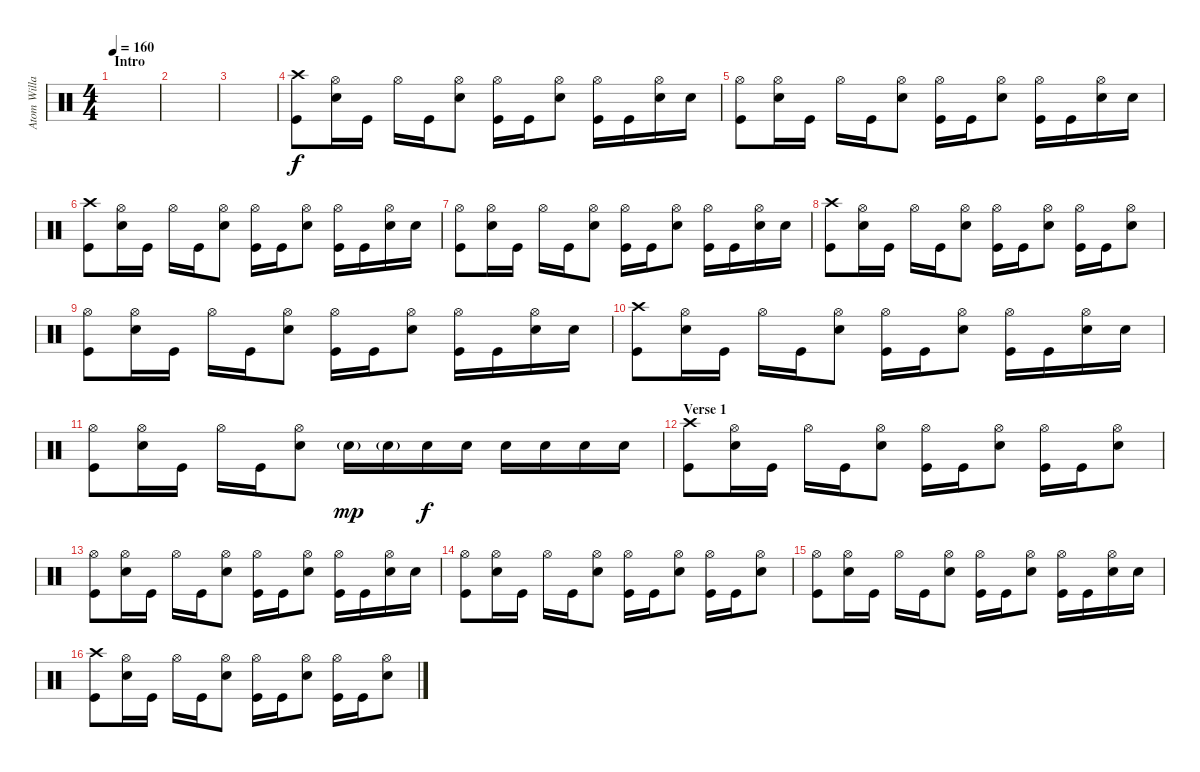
\track ("Atom Willard - Drums" "Atom Willa") {instrument percussion}
\staff {score}
\articulation defaults
\ts (4 4)
\section ("" "Intro")
\tempo 160
\clef neutral
\ks c
|
|
|
("Crash high (hit)" "Kick (hit)").8 ("Hi-Hat (open)" "Electric Snare (hit)").16 "Kick (hit)".16 "Hi-Hat (open)".16 "Kick (hit)".16 ("Hi-Hat (open)" "Electric Snare (hit)").8 ("Hi-Hat (open)" "Kick (hit)").16 "Kick (hit)".16 ("Hi-Hat (open)" "Electric Snare (hit)").8 ("Hi-Hat (open)" "Kick (hit)").16 "Kick (hit)".16 ("Hi-Hat (open)" "Electric Snare (hit)").16 "Electric Snare (hit)".16 |
("Hi-Hat (open)" "Kick (hit)").8 ("Hi-Hat (open)" "Electric Snare (hit)").16 "Kick (hit)".16 "Hi-Hat (open)".16 "Kick (hit)".16 ("Hi-Hat (open)" "Electric Snare (hit)").8 ("Hi-Hat (open)" "Kick (hit)").16 "Kick (hit)".16 ("Hi-Hat (open)" "Electric Snare (hit)").8 ("Hi-Hat (open)" "Kick (hit)").16 "Kick (hit)".16 ("Hi-Hat (open)" "Electric Snare (hit)").16 "Electric Snare (hit)".16 |
("Crash high (hit)" "Kick (hit)").8 ("Hi-Hat (open)" "Electric Snare (hit)").16 "Kick (hit)".16 "Hi-Hat (open)".16 "Kick (hit)".16 ("Hi-Hat (open)" "Electric Snare (hit)").8 ("Hi-Hat (open)" "Kick (hit)").16 "Kick (hit)".16 ("Hi-Hat (open)" "Electric Snare (hit)").8 ("Hi-Hat (open)" "Kick (hit)").16 "Kick (hit)".16 ("Hi-Hat (open)" "Electric Snare (hit)").16 "Electric Snare (hit)".16 |
("Hi-Hat (open)" "Kick (hit)").8 ("Hi-Hat (open)" "Electric Snare (hit)").16 "Kick (hit)".16 "Hi-Hat (open)".16 "Kick (hit)".16 ("Hi-Hat (open)" "Electric Snare (hit)").8 ("Hi-Hat (open)" "Kick (hit)").16 "Kick (hit)".16 ("Hi-Hat (open)" "Electric Snare (hit)").8 ("Hi-Hat (open)" "Kick (hit)").16 "Kick (hit)".16 ("Hi-Hat (open)" "Electric Snare (hit)").16 "Electric Snare (hit)".16 |
("Crash high (hit)" "Kick (hit)").8 ("Hi-Hat (open)" "Electric Snare (hit)").16 "Kick (hit)".16 "Hi-Hat (open)".16 "Kick (hit)".16 ("Hi-Hat (open)" "Electric Snare (hit)").8 ("Hi-Hat (open)" "Kick (hit)").16 "Kick (hit)".16 ("Hi-Hat (open)" "Electric Snare (hit)").8 ("Hi-Hat (open)" "Kick (hit)").16 "Kick (hit)".16 ("Hi-Hat (open)" "Electric Snare (hit)").8 |
("Hi-Hat (open)" "Kick (hit)").8 ("Hi-Hat (open)" "Electric Snare (hit)").16 "Kick (hit)".16 "Hi-Hat (open)".16 "Kick (hit)".16 ("Hi-Hat (open)" "Electric Snare (hit)").8 ("Hi-Hat (open)" "Kick (hit)").16 "Kick (hit)".16 ("Hi-Hat (open)" "Electric Snare (hit)").8 ("Hi-Hat (open)" "Kick (hit)").16 "Kick (hit)".16 ("Hi-Hat (open)" "Electric Snare (hit)").16 "Electric Snare (hit)".16 |
("Crash high (hit)" "Kick (hit)").8 ("Hi-Hat (open)" "Electric Snare (hit)").16 "Kick (hit)".16 "Hi-Hat (open)".16 "Kick (hit)".16 ("Hi-Hat (open)" "Electric Snare (hit)").8 ("Hi-Hat (open)" "Kick (hit)").16 "Kick (hit)".16 ("Hi-Hat (open)" "Electric Snare (hit)").8 ("Hi-Hat (open)" "Kick (hit)").16 "Kick (hit)".16 ("Hi-Hat (open)" "Electric Snare (hit)").16 "Electric Snare (hit)".16 |
("Hi-Hat (open)" "Kick (hit)").8 ("Hi-Hat (open)" "Electric Snare (hit)").16 "Kick (hit)".16 "Hi-Hat (open)".16 "Kick (hit)".16 ("Hi-Hat (open)" "Electric Snare (hit)").8 "Electric Snare (hit)"{g}.16{dy mp} "Electric Snare (hit)"{g}.16 "Electric Snare (hit)".16{dy f} "Electric Snare (hit)".16 "Electric Snare (hit)".16 "Electric Snare (hit)".16 "Electric Snare (hit)".16 "Electric Snare (hit)".16 |
\section ("" "Verse 1")
("Crash high (hit)" "Kick (hit)").8 ("Hi-Hat (open)" "Electric Snare (hit)").16 "Kick (hit)".16 "Hi-Hat (open)".16 "Kick (hit)".16 ("Hi-Hat (open)" "Electric Snare (hit)").8 ("Hi-Hat (open)" "Kick (hit)").16 "Kick (hit)".16 ("Hi-Hat (open)" "Electric Snare (hit)").8 ("Hi-Hat (open)" "Kick (hit)").16 "Kick (hit)".16 ("Hi-Hat (open)" "Electric Snare (hit)").8 |
("Hi-Hat (open)" "Kick (hit)").8 ("Hi-Hat (open)" "Electric Snare (hit)").16 "Kick (hit)".16 "Hi-Hat (open)".16 "Kick (hit)".16 ("Hi-Hat (open)" "Electric Snare (hit)").8 ("Hi-Hat (open)" "Kick (hit)").16 "Kick (hit)".16 ("Hi-Hat (open)" "Electric Snare (hit)").8 ("Hi-Hat (open)" "Kick (hit)").16 "Kick (hit)".16 ("Hi-Hat (open)" "Electric Snare (hit)").16 "Electric Snare (hit)".16 |
("Hi-Hat (open)" "Kick (hit)").8 ("Hi-Hat (open)" "Electric Snare (hit)").16 "Kick (hit)".16 "Hi-Hat (open)".16 "Kick (hit)".16 ("Hi-Hat (open)" "Electric Snare (hit)").8 ("Hi-Hat (open)" "Kick (hit)").16 "Kick (hit)".16 ("Hi-Hat (open)" "Electric Snare (hit)").8 ("Hi-Hat (open)" "Kick (hit)").16 "Kick (hit)".16 ("Hi-Hat (open)" "Electric Snare (hit)").8 |
("Hi-Hat (open)" "Kick (hit)").8 ("Hi-Hat (open)" "Electric Snare (hit)").16 "Kick (hit)".16 "Hi-Hat (open)".16 "Kick (hit)".16 ("Hi-Hat (open)" "Electric Snare (hit)").8 ("Hi-Hat (open)" "Kick (hit)").16 "Kick (hit)".16 ("Hi-Hat (open)" "Electric Snare (hit)").8 ("Hi-Hat (open)" "Kick (hit)").16 "Kick (hit)".16 ("Hi-Hat (open)" "Electric Snare (hit)").16 "Electric Snare (hit)".16 |
("Crash high (hit)" "Kick (hit)").8 ("Hi-Hat (open)" "Electric Snare (hit)").16 "Kick (hit)".16 "Hi-Hat (open)".16 "Kick (hit)".16 ("Hi-Hat (open)" "Electric Snare (hit)").8 ("Hi-Hat (open)" "Kick (hit)").16 "Kick (hit)".16 ("Hi-Hat (open)" "Electric Snare (hit)").8 ("Hi-Hat (open)" "Kick (hit)").16 "Kick (hit)".16 ("Hi-Hat (open)" "Electric Snare (hit)").8
